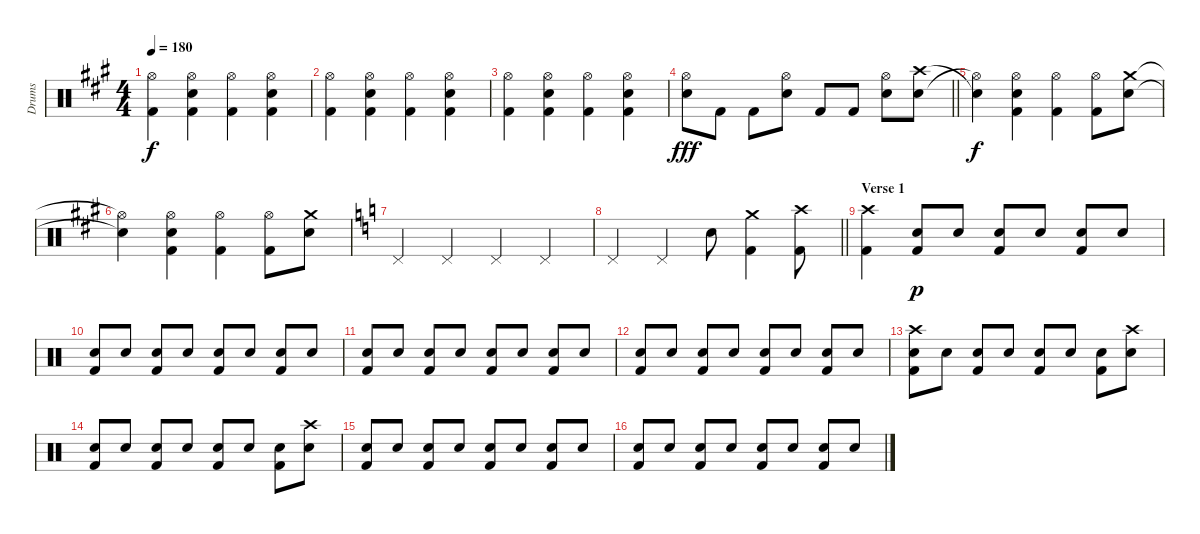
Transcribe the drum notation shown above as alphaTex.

\track ("Drums" "Drums") {instrument percussion}
\staff {score}
\articulation defaults
\ts (4 4)
\tempo 180
\clef neutral
\ks a
("Hi-Hat (open)" "Kick (hit) 2").4{dy f} ("Hi-Hat (open)" "Electric Snare (hit)" "Kick (hit) 2").4 ("Hi-Hat (open)" "Kick (hit) 2").4 ("Hi-Hat (open)" "Electric Snare (hit)" "Kick (hit) 2").4 |
("Hi-Hat (open)" "Kick (hit) 2").4 ("Hi-Hat (open)" "Electric Snare (hit)" "Kick (hit) 2").4 ("Hi-Hat (open)" "Kick (hit) 2").4 ("Hi-Hat (open)" "Electric Snare (hit)" "Kick (hit) 2").4 |
("Hi-Hat (open)" "Kick (hit) 2").4 ("Hi-Hat (open)" "Electric Snare (hit)" "Kick (hit) 2").4 ("Hi-Hat (open)" "Kick (hit) 2").4 ("Hi-Hat (open)" "Electric Snare (hit)" "Kick (hit) 2").4 |
\barLineRight lightlight
("Hi-Hat (open)" "Electric Snare (hit)").8{dy fff} "Kick (hit) 2".8 "Kick (hit) 2".8 ("Hi-Hat (open)" "Electric Snare (hit)").8 "Kick (hit) 2".8 "Kick (hit) 2".8 ("Hi-Hat (open)" "Electric Snare (hit)").8 ("Crash high (hit)" "Electric Snare (hit)").8 |
("Snare (hit)"{t} "Hi-Hat (open)"{t}).4{dy f} ("Hi-Hat (open)" "Electric Snare (hit)" "Kick (hit) 2").4 ("Hi-Hat (open)" "Kick (hit) 2").4 ("Hi-Hat (open)" "Kick (hit) 2").8 ("Crash medium (hit)" "Electric Snare (hit)").8 |
("Hi-Hat (open)"{t} "Snare (hit)"{t}).4 ("Hi-Hat (open)" "Electric Snare (hit)" "Kick (hit) 2").4 ("Hi-Hat (open)" "Kick (hit) 2").4 ("Hi-Hat (open)" "Kick (hit) 2").8 ("Crash medium (hit)" "Electric Snare (hit)").8 |
\ks c "Pedal Hi-Hat (hit)".4 "Pedal Hi-Hat (hit)".4 "Pedal Hi-Hat (hit)".4 "Pedal Hi-Hat (hit)".4
|
\barLineRight lightlight "Pedal Hi-Hat (hit)".4 "Pedal Hi-Hat (hit)".4 "Electric Snare (hit)".8
("Crash medium (hit)" "Kick (hit) 2").4 ("Crash high (hit)" "Kick (hit) 2").8 |
\section ("" "Verse 1")
("Crash high (hit)" "Kick (hit) 2").4 ("Electric Snare (hit)" "Kick (hit) 2").8{dy p} "Electric Snare (hit)".8 ("Electric Snare (hit)" "Kick (hit) 2").8 "Electric Snare (hit)".8 ("Electric Snare (hit)" "Kick (hit) 2").8 "Electric Snare (hit)".8 |
("Electric Snare (hit)" "Kick (hit) 2").8 "Electric Snare (hit)".8 ("Electric Snare (hit)" "Kick (hit) 2").8 "Electric Snare (hit)".8 ("Electric Snare (hit)" "Kick (hit) 2").8 "Electric Snare (hit)".8 ("Electric Snare (hit)" "Kick (hit) 2").8 "Electric Snare (hit)".8 |
("Electric Snare (hit)" "Kick (hit) 2").8 "Electric Snare (hit)".8 ("Electric Snare (hit)" "Kick (hit) 2").8 "Electric Snare (hit)".8 ("Electric Snare (hit)" "Kick (hit) 2").8 "Electric Snare (hit)".8 ("Electric Snare (hit)" "Kick (hit) 2").8 "Electric Snare (hit)".8 |
("Electric Snare (hit)" "Kick (hit) 2").8 "Electric Snare (hit)".8 ("Electric Snare (hit)" "Kick (hit) 2").8 "Electric Snare (hit)".8 ("Electric Snare (hit)" "Kick (hit) 2").8 "Electric Snare (hit)".8 ("Electric Snare (hit)" "Kick (hit) 2").8 "Electric Snare (hit)".8 |
("Crash high (hit)" "Electric Snare (hit)" "Kick (hit) 2").8 "Electric Snare (hit)".8 ("Electric Snare (hit)" "Kick (hit) 2").8 "Electric Snare (hit)".8 ("Electric Snare (hit)" "Kick (hit) 2").8 "Electric Snare (hit)".8 ("Electric Snare (hit)" "Kick (hit) 2").8 ("Crash high (hit)" "Electric Snare (hit)").8 |
("Electric Snare (hit)" "Kick (hit) 2").8 "Electric Snare (hit)".8 ("Electric Snare (hit)" "Kick (hit) 2").8 "Electric Snare (hit)".8 ("Electric Snare (hit)" "Kick (hit) 2").8 "Electric Snare (hit)".8 ("Electric Snare (hit)" "Kick (hit) 2").8 ("Crash high (hit)" "Electric Snare (hit)").8 |
("Electric Snare (hit)" "Kick (hit) 2").8 "Electric Snare (hit)".8 ("Electric Snare (hit)" "Kick (hit) 2").8 "Electric Snare (hit)".8 ("Electric Snare (hit)" "Kick (hit) 2").8 "Electric Snare (hit)".8 ("Electric Snare (hit)" "Kick (hit) 2").8 "Electric Snare (hit)".8 |
("Electric Snare (hit)" "Kick (hit) 2").8 "Electric Snare (hit)".8 ("Electric Snare (hit)" "Kick (hit) 2").8 "Electric Snare (hit)".8 ("Electric Snare (hit)" "Kick (hit) 2").8 "Electric Snare (hit)".8 ("Electric Snare (hit)" "Kick (hit) 2").8 "Electric Snare (hit)".8
